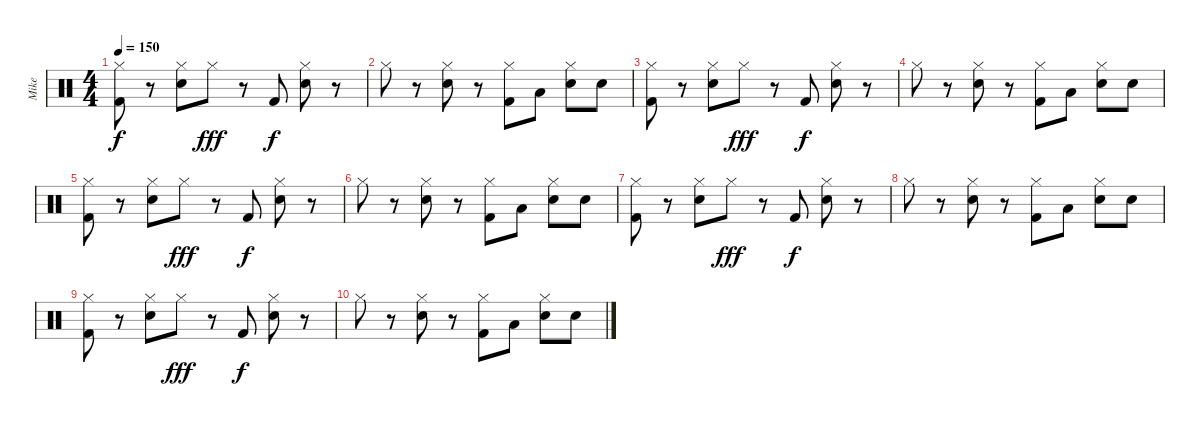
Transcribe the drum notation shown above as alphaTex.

\track ("Mike" "Mike") {instrument percussion}
\staff {score}
\articulation defaults
\ts (4 4)
\tempo 150
\clef neutral
\ks c
("Hi-Hat (closed)" "Kick (hit) 2").8{dy f} r.8 ("Hi-Hat (closed)" "Snare (hit) 2").8 "Hi-Hat (closed)".8{dy fff} r.8 "Kick (hit) 2".8{dy f} ("Hi-Hat (closed)" "Snare (hit) 2").8 r.8 |
"Hi-Hat (closed)".8 r.8 ("Hi-Hat (closed)" "Snare (hit) 2").8 r.8 ("Hi-Hat (closed)" "Kick (hit) 2").8 "Low Tom (hit)".8 ("Hi-Hat (closed)" "Snare (hit) 2").8 "Snare (hit) 2".8 |
("Hi-Hat (closed)" "Kick (hit) 2").8 r.8 ("Hi-Hat (closed)" "Snare (hit) 2").8 "Hi-Hat (closed)".8{dy fff} r.8 "Kick (hit) 2".8{dy f} ("Hi-Hat (closed)" "Snare (hit) 2").8 r.8 |
"Hi-Hat (closed)".8 r.8 ("Hi-Hat (closed)" "Snare (hit) 2").8 r.8 ("Hi-Hat (closed)" "Kick (hit) 2").8 "Low Tom (hit)".8 ("Hi-Hat (closed)" "Snare (hit) 2").8 "Snare (hit) 2".8 |
("Hi-Hat (closed)" "Kick (hit) 2").8 r.8 ("Hi-Hat (closed)" "Snare (hit) 2").8 "Hi-Hat (closed)".8{dy fff} r.8 "Kick (hit) 2".8{dy f} ("Hi-Hat (closed)" "Snare (hit) 2").8 r.8 |
"Hi-Hat (closed)".8 r.8 ("Hi-Hat (closed)" "Snare (hit) 2").8 r.8 ("Hi-Hat (closed)" "Kick (hit) 2").8 "Low Tom (hit)".8 ("Hi-Hat (closed)" "Snare (hit) 2").8 "Snare (hit) 2".8 |
("Hi-Hat (closed)" "Kick (hit) 2").8 r.8 ("Hi-Hat (closed)" "Snare (hit) 2").8 "Hi-Hat (closed)".8{dy fff} r.8 "Kick (hit) 2".8{dy f} ("Hi-Hat (closed)" "Snare (hit) 2").8 r.8 |
"Hi-Hat (closed)".8 r.8 ("Hi-Hat (closed)" "Snare (hit) 2").8 r.8 ("Hi-Hat (closed)" "Kick (hit) 2").8 "Low Tom (hit)".8 ("Hi-Hat (closed)" "Snare (hit) 2").8 "Snare (hit) 2".8 |
("Hi-Hat (closed)" "Kick (hit) 2").8 r.8 ("Hi-Hat (closed)" "Snare (hit) 2").8 "Hi-Hat (closed)".8{dy fff} r.8 "Kick (hit) 2".8{dy f} ("Hi-Hat (closed)" "Snare (hit) 2").8 r.8 |
"Hi-Hat (closed)".8 r.8 ("Hi-Hat (closed)" "Snare (hit) 2").8 r.8 ("Hi-Hat (closed)" "Kick (hit) 2").8 "Low Tom (hit)".8 ("Hi-Hat (closed)" "Snare (hit) 2").8 "Snare (hit) 2".8
